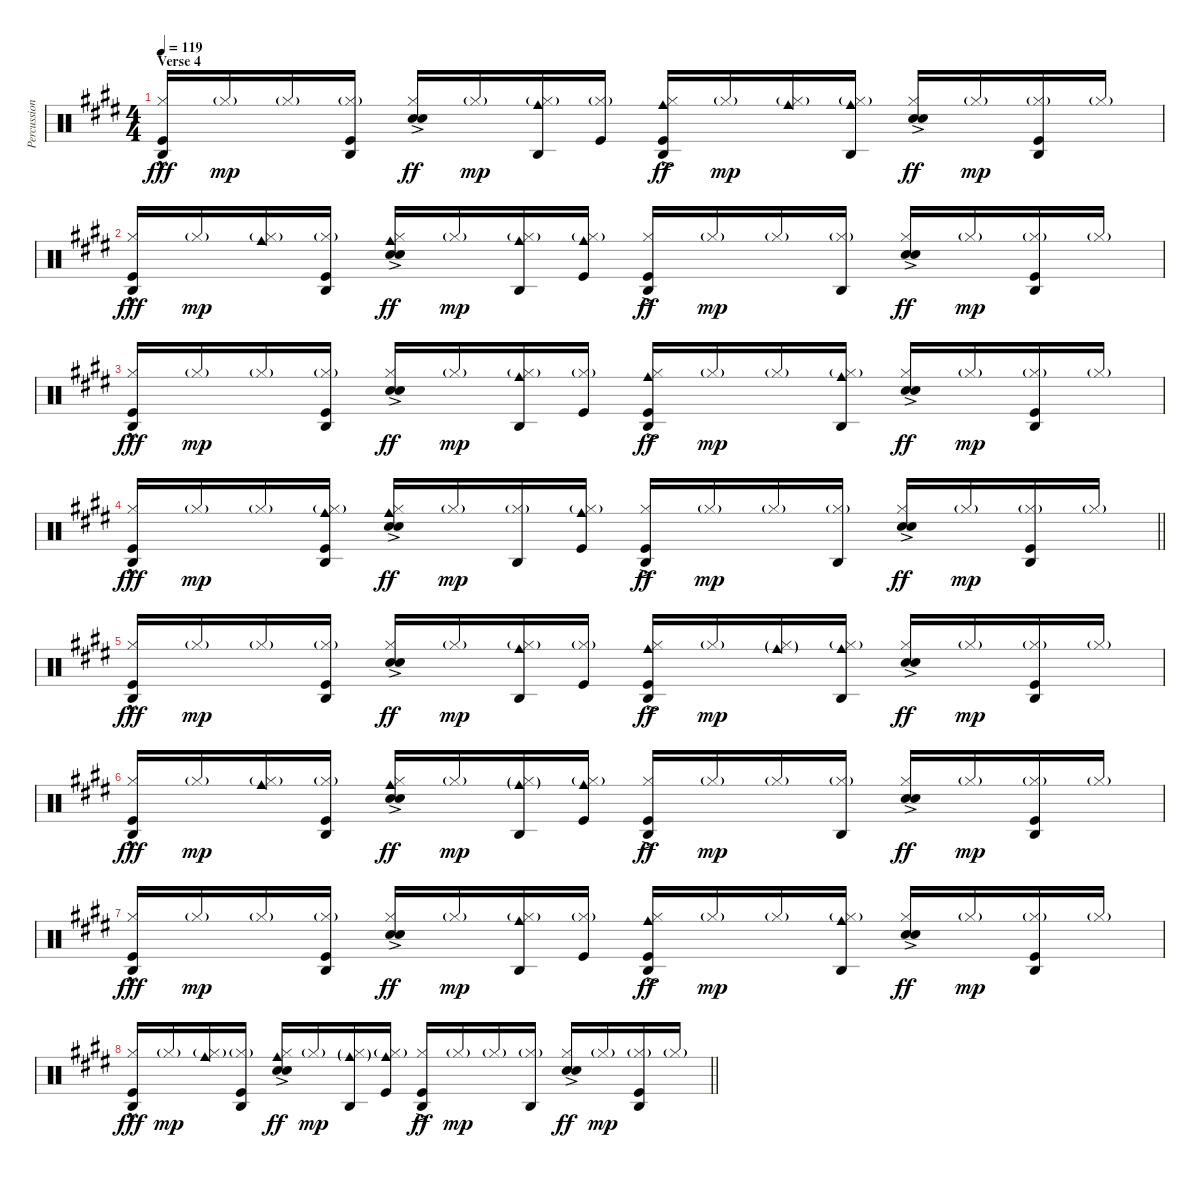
\track ("Percussion" "Percussion") {instrument percussion}
\staff {score}
\articulation defaults
\ts (4 4)
\section ("" "Verse 4")
\tempo 119
\clef neutral
\ks e
("Agogo high (hit)" "Hi-Hat (closed)" "Kick (hit)"{hac}).16{dy fff} "Hi-Hat (closed)"{g}.16{dy mp} "Hi-Hat (closed)"{g}.16 ("Agogo high (hit)" "Hi-Hat (closed)"{g} "Kick (hit)").16 ("Hi-Hat (closed)" "Hand Clap (hit)"{ac} "Snare (hit) 2"{ac}).16{dy ff} "Hi-Hat (closed)"{g}.16{dy mp} ("Agogo high (hit)" "Cowbell medium (hit)" "Hi-Hat (closed)"{g}).16 ("Hi-Hat (closed)"{g} "Kick (hit)").16 ("Agogo high (hit)" "Cowbell medium (hit)" "Hi-Hat (closed)" "Kick (hit)"{ac}).16{dy ff} "Hi-Hat (closed)"{g}.16{dy mp} ("Cowbell medium (hit)" "Hi-Hat (closed)"{g}).16 ("Agogo high (hit)" "Cowbell medium (hit)" "Hi-Hat (closed)"{g}).16 ("Hi-Hat (closed)" "Hand Clap (hit)"{ac} "Snare (hit) 2"{ac}).16{dy ff} "Hi-Hat (closed)"{g}.16{dy mp} ("Agogo high (hit)" "Hi-Hat (closed)"{g} "Kick (hit)").16 "Hi-Hat (closed)"{g}.16 |
("Agogo high (hit)" "Hi-Hat (closed)" "Kick (hit)"{hac}).16{dy fff} "Hi-Hat (closed)"{g}.16{dy mp} ("Cowbell medium (hit)" "Hi-Hat (closed)"{g}).16 ("Agogo high (hit)" "Hi-Hat (closed)"{g} "Kick (hit)").16 ("Cowbell medium (hit)" "Hi-Hat (closed)" "Hand Clap (hit)"{ac} "Snare (hit) 2"{ac}).16{dy ff} "Hi-Hat (closed)"{g}.16{dy mp} ("Agogo high (hit)" "Cowbell medium (hit)" "Hi-Hat (closed)"{g}).16 ("Cowbell medium (hit)" "Hi-Hat (closed)"{g} "Kick (hit)").16 ("Agogo high (hit)" "Hi-Hat (closed)" "Kick (hit)"{ac}).16{dy ff} "Hi-Hat (closed)"{g}.16{dy mp} "Hi-Hat (closed)"{g}.16 ("Agogo high (hit)" "Hi-Hat (closed)"{g}).16 ("Hi-Hat (closed)" "Hand Clap (hit)"{ac} "Snare (hit) 2"{ac}).16{dy ff} "Hi-Hat (closed)"{g}.16{dy mp} ("Agogo high (hit)" "Hi-Hat (closed)"{g} "Kick (hit)").16 "Hi-Hat (closed)"{g}.16 |
("Agogo high (hit)" "Hi-Hat (closed)" "Kick (hit)"{hac}).16{dy fff} "Hi-Hat (closed)"{g}.16{dy mp} "Hi-Hat (closed)"{g}.16 ("Agogo high (hit)" "Hi-Hat (closed)"{g} "Kick (hit)").16 ("Hi-Hat (closed)" "Hand Clap (hit)"{ac} "Snare (hit) 2"{ac}).16{dy ff} "Hi-Hat (closed)"{g}.16{dy mp} ("Agogo high (hit)" "Cowbell medium (hit)" "Hi-Hat (closed)"{g}).16 ("Hi-Hat (closed)"{g} "Kick (hit)").16 ("Agogo high (hit)" "Cowbell medium (hit)" "Hi-Hat (closed)" "Kick (hit)"{ac}).16{dy ff} "Hi-Hat (closed)"{g}.16{dy mp} "Hi-Hat (closed)"{g}.16 ("Agogo high (hit)" "Cowbell medium (hit)" "Hi-Hat (closed)"{g}).16 ("Hi-Hat (closed)" "Hand Clap (hit)"{ac} "Snare (hit) 2"{ac}).16{dy ff} "Hi-Hat (closed)"{g}.16{dy mp} ("Agogo high (hit)" "Hi-Hat (closed)"{g} "Kick (hit)").16 "Hi-Hat (closed)"{g}.16 |
\barLineRight lightlight
("Agogo high (hit)" "Hi-Hat (closed)" "Kick (hit)"{hac}).16{dy fff} "Hi-Hat (closed)"{g}.16{dy mp} "Hi-Hat (closed)"{g}.16 ("Agogo high (hit)" "Cowbell medium (hit)" "Hi-Hat (closed)"{g} "Kick (hit)").16 ("Cowbell medium (hit)" "Hi-Hat (closed)" "Hand Clap (hit)"{ac} "Snare (hit) 2"{ac}).16{dy ff} "Hi-Hat (closed)"{g}.16{dy mp} ("Agogo high (hit)" "Hi-Hat (closed)"{g}).16 ("Cowbell medium (hit)" "Hi-Hat (closed)"{g} "Kick (hit)").16 ("Agogo high (hit)" "Hi-Hat (closed)" "Kick (hit)"{ac}).16{dy ff} "Hi-Hat (closed)"{g}.16{dy mp} "Hi-Hat (closed)"{g}.16 ("Agogo high (hit)" "Hi-Hat (closed)"{g}).16 ("Hi-Hat (closed)" "Hand Clap (hit)"{ac} "Snare (hit) 2"{ac}).16{dy ff} "Hi-Hat (closed)"{g}.16{dy mp} ("Agogo high (hit)" "Hi-Hat (closed)"{g} "Kick (hit)").16 "Hi-Hat (closed)"{g}.16 |
("Agogo high (hit)" "Hi-Hat (closed)" "Kick (hit)"{hac}).16{dy fff} "Hi-Hat (closed)"{g}.16{dy mp} "Hi-Hat (closed)"{g}.16 ("Agogo high (hit)" "Hi-Hat (closed)"{g} "Kick (hit)").16 ("Hi-Hat (closed)" "Hand Clap (hit)"{ac} "Snare (hit) 2"{ac}).16{dy ff} "Hi-Hat (closed)"{g}.16{dy mp} ("Agogo high (hit)" "Cowbell medium (hit)" "Hi-Hat (closed)"{g}).16 ("Hi-Hat (closed)"{g} "Kick (hit)").16 ("Agogo high (hit)" "Cowbell medium (hit)" "Hi-Hat (closed)" "Kick (hit)"{ac}).16{dy ff} "Hi-Hat (closed)"{g}.16{dy mp} ("Cowbell medium (hit)"{g} "Hi-Hat (closed)"{g}).16 ("Agogo high (hit)" "Cowbell medium (hit)" "Hi-Hat (closed)"{g}).16 ("Hi-Hat (closed)" "Hand Clap (hit)"{ac} "Snare (hit) 2"{ac}).16{dy ff} "Hi-Hat (closed)"{g}.16{dy mp} ("Agogo high (hit)" "Hi-Hat (closed)"{g} "Kick (hit)").16 "Hi-Hat (closed)"{g}.16 |
("Agogo high (hit)" "Hi-Hat (closed)" "Kick (hit)"{hac}).16{dy fff} "Hi-Hat (closed)"{g}.16{dy mp} ("Cowbell medium (hit)" "Hi-Hat (closed)"{g}).16 ("Agogo high (hit)" "Hi-Hat (closed)"{g} "Kick (hit)").16 ("Cowbell medium (hit)" "Hi-Hat (closed)" "Hand Clap (hit)"{ac} "Snare (hit) 2"{ac}).16{dy ff} "Hi-Hat (closed)"{g}.16{dy mp} ("Agogo high (hit)" "Cowbell medium (hit)"{g} "Hi-Hat (closed)"{g}).16 ("Cowbell medium (hit)" "Hi-Hat (closed)"{g} "Kick (hit)").16 ("Agogo high (hit)" "Hi-Hat (closed)" "Kick (hit)"{ac}).16{dy ff} "Hi-Hat (closed)"{g}.16{dy mp} "Hi-Hat (closed)"{g}.16 ("Agogo high (hit)" "Hi-Hat (closed)"{g}).16 ("Hi-Hat (closed)" "Hand Clap (hit)"{ac} "Snare (hit) 2"{ac}).16{dy ff} "Hi-Hat (closed)"{g}.16{dy mp} ("Agogo high (hit)" "Hi-Hat (closed)"{g} "Kick (hit)").16 "Hi-Hat (closed)"{g}.16 |
("Agogo high (hit)" "Hi-Hat (closed)" "Kick (hit)"{hac}).16{dy fff} "Hi-Hat (closed)"{g}.16{dy mp} "Hi-Hat (closed)"{g}.16 ("Agogo high (hit)" "Hi-Hat (closed)"{g} "Kick (hit)").16 ("Hi-Hat (closed)" "Hand Clap (hit)"{ac} "Snare (hit) 2"{ac}).16{dy ff} "Hi-Hat (closed)"{g}.16{dy mp} ("Agogo high (hit)" "Cowbell medium (hit)" "Hi-Hat (closed)"{g}).16 ("Hi-Hat (closed)"{g} "Kick (hit)").16 ("Agogo high (hit)" "Cowbell medium (hit)" "Hi-Hat (closed)" "Kick (hit)"{ac}).16{dy ff} "Hi-Hat (closed)"{g}.16{dy mp} "Hi-Hat (closed)"{g}.16 ("Agogo high (hit)" "Cowbell medium (hit)" "Hi-Hat (closed)"{g}).16 ("Hi-Hat (closed)" "Hand Clap (hit)"{ac} "Snare (hit) 2"{ac}).16{dy ff} "Hi-Hat (closed)"{g}.16{dy mp} ("Agogo high (hit)" "Hi-Hat (closed)"{g} "Kick (hit)").16 "Hi-Hat (closed)"{g}.16 |
\barLineRight lightlight
("Agogo high (hit)" "Hi-Hat (closed)" "Kick (hit)"{hac}).16{dy fff} "Hi-Hat (closed)"{g}.16{dy mp} ("Cowbell medium (hit)" "Hi-Hat (closed)"{g}).16 ("Agogo high (hit)" "Hi-Hat (closed)"{g} "Kick (hit)").16 ("Cowbell medium (hit)" "Hi-Hat (closed)" "Hand Clap (hit)"{ac} "Snare (hit) 2"{ac}).16{dy ff} "Hi-Hat (closed)"{g}.16{dy mp} ("Agogo high (hit)" "Cowbell medium (hit)"{g} "Hi-Hat (closed)"{g}).16 ("Cowbell medium (hit)" "Hi-Hat (closed)"{g} "Kick (hit)").16 ("Agogo high (hit)" "Hi-Hat (closed)" "Kick (hit)"{ac}).16{dy ff} "Hi-Hat (closed)"{g}.16{dy mp} "Hi-Hat (closed)"{g}.16 ("Agogo high (hit)" "Hi-Hat (closed)"{g}).16 ("Hi-Hat (closed)" "Hand Clap (hit)"{ac} "Snare (hit) 2"{ac}).16{dy ff} "Hi-Hat (closed)"{g}.16{dy mp} ("Agogo high (hit)" "Hi-Hat (closed)"{g} "Kick (hit)").16 "Hi-Hat (closed)"{g}.16
